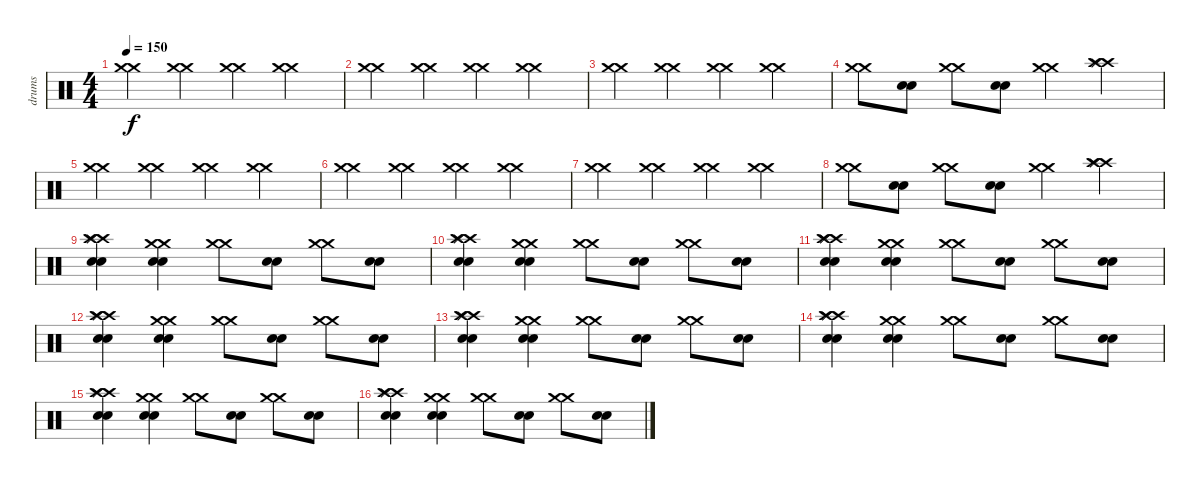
\track ("drums" "drums") {instrument percussion}
\staff {score}
\articulation defaults
\ts (4 4)
\tempo 150
\clef neutral
\ks c
("Crash medium (hit)" "Crash medium (hit)").4{dy f} ("Crash medium (hit)" "Crash medium (hit)").4 ("Crash medium (hit)" "Crash medium (hit)").4 ("Crash medium (hit)" "Crash medium (hit)").4 |
("Crash medium (hit)" "Crash medium (hit)").4 ("Crash medium (hit)" "Crash medium (hit)").4 ("Crash medium (hit)" "Crash medium (hit)").4 ("Crash medium (hit)" "Crash medium (hit)").4 |
("Crash medium (hit)" "Crash medium (hit)").4 ("Crash medium (hit)" "Crash medium (hit)").4 ("Crash medium (hit)" "Crash medium (hit)").4 ("Crash medium (hit)" "Crash medium (hit)").4 |
("Crash medium (hit)" "Crash medium (hit)").8 ("Snare (hit) 2" "Snare (hit) 2").8 ("Crash medium (hit)" "Crash medium (hit)").8 ("Snare (hit) 2" "Snare (hit) 2").8 ("Crash medium (hit)" "Crash medium (hit)").4 ("Crash high (hit)" "Crash high (hit)" "Splash (hit)" "Splash (hit)").4 |
("Crash medium (hit)" "Crash medium (hit)").4 ("Crash medium (hit)" "Crash medium (hit)").4 ("Crash medium (hit)" "Crash medium (hit)").4 ("Crash medium (hit)" "Crash medium (hit)").4 |
("Crash medium (hit)" "Crash medium (hit)").4 ("Crash medium (hit)" "Crash medium (hit)").4 ("Crash medium (hit)" "Crash medium (hit)").4 ("Crash medium (hit)" "Crash medium (hit)").4 |
("Crash medium (hit)" "Crash medium (hit)").4 ("Crash medium (hit)" "Crash medium (hit)").4 ("Crash medium (hit)" "Crash medium (hit)").4 ("Crash medium (hit)" "Crash medium (hit)").4 |
("Crash medium (hit)" "Crash medium (hit)").8 ("Snare (hit) 2" "Snare (hit) 2").8 ("Crash medium (hit)" "Crash medium (hit)").8 ("Snare (hit) 2" "Snare (hit) 2").8 ("Crash medium (hit)" "Crash medium (hit)").4 ("Crash high (hit)" "Crash high (hit)" "Splash (hit)" "Splash (hit)").4 |
("Crash high (hit)" "Crash high (hit)" "Splash (hit)" "Splash (hit)" "Snare (hit) 2" "Snare (hit) 2").4 ("Crash medium (hit)" "Crash medium (hit)" "Snare (hit) 2" "Snare (hit) 2").4 ("Crash medium (hit)" "Crash medium (hit)").8 ("Snare (hit) 2" "Snare (hit) 2").8 ("Crash medium (hit)" "Crash medium (hit)").8 ("Snare (hit) 2" "Snare (hit) 2").8 |
("Crash high (hit)" "Crash high (hit)" "Splash (hit)" "Splash (hit)" "Snare (hit) 2" "Snare (hit) 2").4 ("Crash medium (hit)" "Crash medium (hit)" "Snare (hit) 2" "Snare (hit) 2").4 ("Crash medium (hit)" "Crash medium (hit)").8 ("Snare (hit) 2" "Snare (hit) 2").8 ("Crash medium (hit)" "Crash medium (hit)").8 ("Snare (hit) 2" "Snare (hit) 2").8 |
("Crash high (hit)" "Crash high (hit)" "Splash (hit)" "Splash (hit)" "Snare (hit) 2" "Snare (hit) 2").4 ("Crash medium (hit)" "Crash medium (hit)" "Snare (hit) 2" "Snare (hit) 2").4 ("Crash medium (hit)" "Crash medium (hit)").8 ("Snare (hit) 2" "Snare (hit) 2").8 ("Crash medium (hit)" "Crash medium (hit)").8 ("Snare (hit) 2" "Snare (hit) 2").8 |
("Crash high (hit)" "Crash high (hit)" "Splash (hit)" "Splash (hit)" "Snare (hit) 2" "Snare (hit) 2").4 ("Crash medium (hit)" "Crash medium (hit)" "Snare (hit) 2" "Snare (hit) 2").4 ("Crash medium (hit)" "Crash medium (hit)").8 ("Snare (hit) 2" "Snare (hit) 2").8 ("Crash medium (hit)" "Crash medium (hit)").8 ("Snare (hit) 2" "Snare (hit) 2").8 |
("Crash high (hit)" "Crash high (hit)" "Splash (hit)" "Splash (hit)" "Snare (hit) 2" "Snare (hit) 2").4 ("Crash medium (hit)" "Crash medium (hit)" "Snare (hit) 2" "Snare (hit) 2").4 ("Crash medium (hit)" "Crash medium (hit)").8 ("Snare (hit) 2" "Snare (hit) 2").8 ("Crash medium (hit)" "Crash medium (hit)").8 ("Snare (hit) 2" "Snare (hit) 2").8 |
("Crash high (hit)" "Crash high (hit)" "Splash (hit)" "Splash (hit)" "Snare (hit) 2" "Snare (hit) 2").4 ("Crash medium (hit)" "Crash medium (hit)" "Snare (hit) 2" "Snare (hit) 2").4 ("Crash medium (hit)" "Crash medium (hit)").8 ("Snare (hit) 2" "Snare (hit) 2").8 ("Crash medium (hit)" "Crash medium (hit)").8 ("Snare (hit) 2" "Snare (hit) 2").8 |
("Crash high (hit)" "Crash high (hit)" "Splash (hit)" "Splash (hit)" "Snare (hit) 2" "Snare (hit) 2").4 ("Crash medium (hit)" "Crash medium (hit)" "Snare (hit) 2" "Snare (hit) 2").4 ("Crash medium (hit)" "Crash medium (hit)").8 ("Snare (hit) 2" "Snare (hit) 2").8 ("Crash medium (hit)" "Crash medium (hit)").8 ("Snare (hit) 2" "Snare (hit) 2").8 |
("Crash high (hit)" "Crash high (hit)" "Splash (hit)" "Splash (hit)" "Snare (hit) 2" "Snare (hit) 2").4 ("Crash medium (hit)" "Crash medium (hit)" "Snare (hit) 2" "Snare (hit) 2").4 ("Crash medium (hit)" "Crash medium (hit)").8 ("Snare (hit) 2" "Snare (hit) 2").8 ("Crash medium (hit)" "Crash medium (hit)").8 ("Snare (hit) 2" "Snare (hit) 2").8
